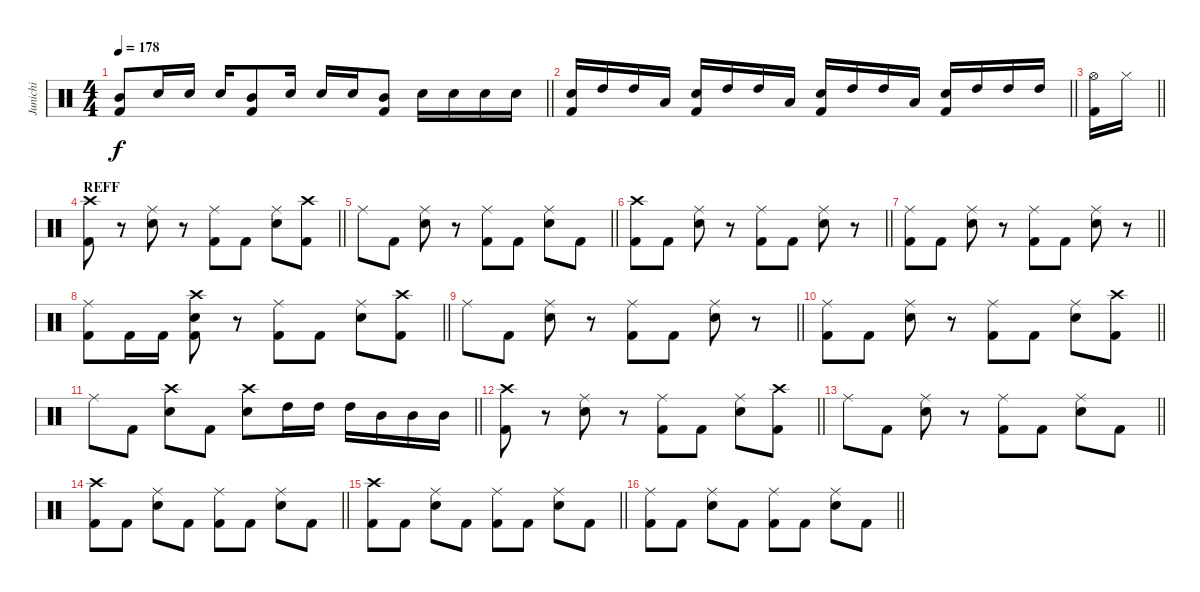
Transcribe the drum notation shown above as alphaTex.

\track ("Junichi" "Junichi") {instrument percussion}
\staff {score}
\articulation defaults
\ts (4 4)
\tempo 178
\clef neutral
\barLineRight lightlight
\ks c
("Mid Tom (hit)" "Kick (hit) 2").8{dy f} "Snare (hit) 2".16 "Snare (hit) 2".16 "Snare (hit) 2".16 ("Mid Tom (hit)" "Kick (hit) 2").8 "Snare (hit) 2".16 "Snare (hit) 2".16 "Snare (hit) 2".16 ("Mid Tom (hit)" "Kick (hit) 2").8 "Snare (hit) 2".16 "Snare (hit) 2".16 "Snare (hit) 2".16 "Snare (hit) 2".16 |
\barLineRight lightlight
("Snare (hit) 2" "Kick (hit) 2").16 "High Tom (hit)".16 "High Tom (hit)".16 "Low Tom (hit)".16 ("Snare (hit) 2" "Kick (hit) 2").16 "High Tom (hit)".16 "High Tom (hit)".16 "Low Tom (hit)".16 ("Snare (hit) 2" "Kick (hit) 2").16 "High Tom (hit)".16 "High Tom (hit)".16 "Low Tom (hit)".16 ("Snare (hit) 2" "Kick (hit) 2").16 "High Tom (hit)".16 "High Tom (hit)".16 "High Tom (hit)".16 |
\barLineRight lightlight
("Hi-Hat (open)" "Kick (hit) 2").16 "Hi-Hat (closed)".16 |
\section ("" "REFF")
\barLineRight lightlight
("Crash high (hit)" "Kick (hit) 2").8 r.8 ("Ride (middle)" "Snare (hit) 2").8 r.8 ("Ride (middle)" "Kick (hit) 2").8 "Kick (hit) 2".8 ("Ride (middle)" "Snare (hit) 2").8 ("Crash high (hit)" "Kick (hit) 2").8 |
\barLineRight lightlight "Ride (middle)".8 "Kick (hit) 2".8
("Ride (middle)" "Snare (hit) 2").8 r.8 ("Ride (middle)" "Kick (hit) 2").8 "Kick (hit) 2".8 ("Ride (middle)" "Snare (hit) 2").8 "Kick (hit) 2".8 |
\barLineRight lightlight
("Crash high (hit)" "Kick (hit) 2").8 "Kick (hit) 2".8 ("Ride (middle)" "Snare (hit) 2").8 r.8 ("Ride (middle)" "Kick (hit) 2").8 "Kick (hit) 2".8 ("Ride (middle)" "Snare (hit) 2").8 r.8 |
\barLineRight lightlight
("Ride (middle)" "Kick (hit) 2").8 "Kick (hit) 2".8 ("Ride (middle)" "Snare (hit) 2").8 r.8 ("Ride (middle)" "Kick (hit) 2").8 "Kick (hit) 2".8 ("Ride (middle)" "Snare (hit) 2").8 r.8 |
\barLineRight lightlight
("Ride (middle)" "Kick (hit) 2").8 "Kick (hit) 2".16 "Kick (hit) 2".16 ("Crash high (hit)" "Snare (hit) 2" "Kick (hit) 2").8 r.8 ("Ride (middle)" "Kick (hit) 2").8 "Kick (hit) 2".8 ("Ride (middle)" "Snare (hit) 2").8 ("Crash high (hit)" "Kick (hit) 2").8 |
\barLineRight lightlight "Ride (middle)".8 "Kick (hit) 2".8
("Ride (middle)" "Snare (hit) 2").8 r.8 ("Ride (middle)" "Kick (hit) 2").8 "Kick (hit) 2".8 ("Ride (middle)" "Snare (hit) 2").8 r.8 |
\barLineRight lightlight
("Ride (middle)" "Kick (hit) 2").8 "Kick (hit) 2".8 ("Ride (middle)" "Snare (hit) 2").8 r.8 ("Ride (middle)" "Kick (hit) 2").8 "Kick (hit) 2".8 ("Ride (middle)" "Snare (hit) 2").8 ("Crash high (hit)" "Kick (hit) 2").8 |
\barLineRight lightlight "Ride (middle)".8 "Kick (hit) 2".8
("Crash high (hit)" "Snare (hit) 2").8 "Kick (hit) 2".8 ("Crash high (hit)" "Snare (hit) 2").8 "High Tom (hit)".16 "High Tom (hit)".16 "High Tom (hit)".16 "Mid Tom (hit)".16 "Mid Tom (hit)".16 "Mid Tom (hit)".16 |
\barLineRight lightlight
("Crash high (hit)" "Kick (hit) 2").8 r.8 ("Ride (middle)" "Snare (hit) 2").8 r.8 ("Ride (middle)" "Kick (hit) 2").8 "Kick (hit) 2".8 ("Ride (middle)" "Snare (hit) 2").8 ("Crash high (hit)" "Kick (hit) 2").8 |
\barLineRight lightlight "Ride (middle)".8 "Kick (hit) 2".8
("Ride (middle)" "Snare (hit) 2").8 r.8 ("Ride (middle)" "Kick (hit) 2").8 "Kick (hit) 2".8 ("Ride (middle)" "Snare (hit) 2").8 "Kick (hit) 2".8 |
\barLineRight lightlight
("Crash high (hit)" "Kick (hit) 2").8 "Kick (hit) 2".8 ("Ride (middle)" "Snare (hit) 2").8 "Kick (hit) 2".8 ("Ride (middle)" "Kick (hit) 2").8 "Kick (hit) 2".8 ("Ride (middle)" "Snare (hit) 2").8 "Kick (hit) 2".8 |
\barLineRight lightlight
("Crash high (hit)" "Kick (hit) 2").8 "Kick (hit) 2".8 ("Ride (middle)" "Snare (hit) 2").8 "Kick (hit) 2".8 ("Ride (middle)" "Kick (hit) 2").8 "Kick (hit) 2".8 ("Ride (middle)" "Snare (hit) 2").8 "Kick (hit) 2".8 |
\barLineRight lightlight
("Ride (middle)" "Kick (hit) 2").8 "Kick (hit) 2".8 ("Ride (middle)" "Snare (hit) 2").8 "Kick (hit) 2".8 ("Ride (middle)" "Kick (hit) 2").8 "Kick (hit) 2".8 ("Ride (middle)" "Snare (hit) 2").8 "Kick (hit) 2".8
